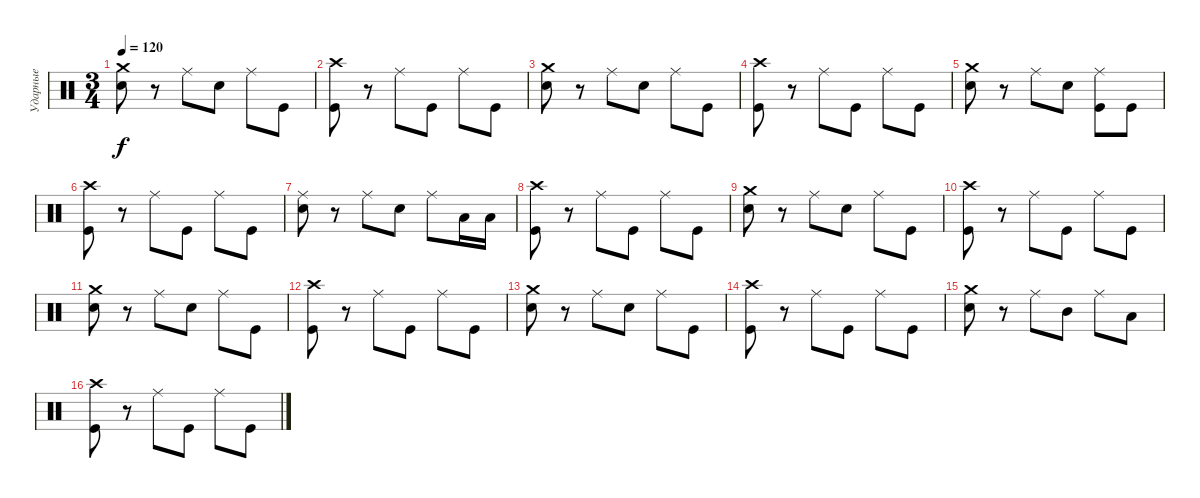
\track ("Ударные" "Ударные") {instrument percussion}
\staff {score}
\articulation defaults
\ts (3 4)
\tempo 120
\clef neutral
\ks c
("Crash medium (hit)" "Snare (hit) 2").8{dy f} r.8 "Ride (middle)".8 "Snare (hit) 2".8 "Ride (middle)".8 "Kick (hit)".8 |
("Crash high (hit)" "Kick (hit)").8 r.8 "Ride (middle)".8 "Kick (hit)".8 "Ride (middle)".8 "Kick (hit)".8 |
("Crash medium (hit)" "Snare (hit) 2").8 r.8 "Ride (middle)".8 "Snare (hit) 2".8 "Ride (middle)".8 "Kick (hit)".8 |
("Crash high (hit)" "Kick (hit)").8 r.8 "Ride (middle)".8 "Kick (hit)".8 "Ride (middle)".8 "Kick (hit)".8 |
("Crash medium (hit)" "Snare (hit) 2").8 r.8 "Ride (middle)".8 "Snare (hit) 2".8 ("Ride (middle)" "Kick (hit)").8 "Kick (hit)".8 |
("Crash high (hit)" "Kick (hit)").8 r.8 "Ride (middle)".8 "Kick (hit)".8 "Ride (middle)".8 "Kick (hit)".8 |
("Ride (middle)" "Snare (hit) 2").8 r.8 "Ride (middle)".8 "Snare (hit) 2".8 "Ride (middle)".8 "Low Tom (hit)".16 "Low Tom (hit)".16 |
("Crash high (hit)" "Kick (hit)").8 r.8 "Ride (middle)".8 "Kick (hit)".8 "Ride (middle)".8 "Kick (hit)".8 |
("Crash medium (hit)" "Snare (hit) 2").8 r.8 "Ride (middle)".8 "Snare (hit) 2".8 "Ride (middle)".8 "Kick (hit)".8 |
("Crash high (hit)" "Kick (hit)").8 r.8 "Ride (middle)".8 "Kick (hit)".8 "Ride (middle)".8 "Kick (hit)".8 |
("Crash medium (hit)" "Snare (hit) 2").8 r.8 "Ride (middle)".8 "Snare (hit) 2".8 "Ride (middle)".8 "Kick (hit)".8 |
("Crash high (hit)" "Kick (hit)").8 r.8 "Ride (middle)".8 "Kick (hit)".8 "Ride (middle)".8 "Kick (hit)".8 |
("Crash medium (hit)" "Snare (hit) 2").8 r.8 "Ride (middle)".8 "Snare (hit) 2".8 "Ride (middle)".8 "Kick (hit)".8 |
("Crash high (hit)" "Kick (hit)").8 r.8 "Ride (middle)".8 "Kick (hit)".8 "Ride (middle)".8 "Kick (hit)".8 |
("Crash medium (hit)" "Snare (hit) 2").8 r.8 "Ride (middle)".8 "Mid Tom (hit)".8 "Ride (middle)".8 "Low Tom (hit)".8 |
("Crash high (hit)" "Kick (hit)").8 r.8 "Ride (middle)".8 "Kick (hit)".8 "Ride (middle)".8 "Kick (hit)".8
